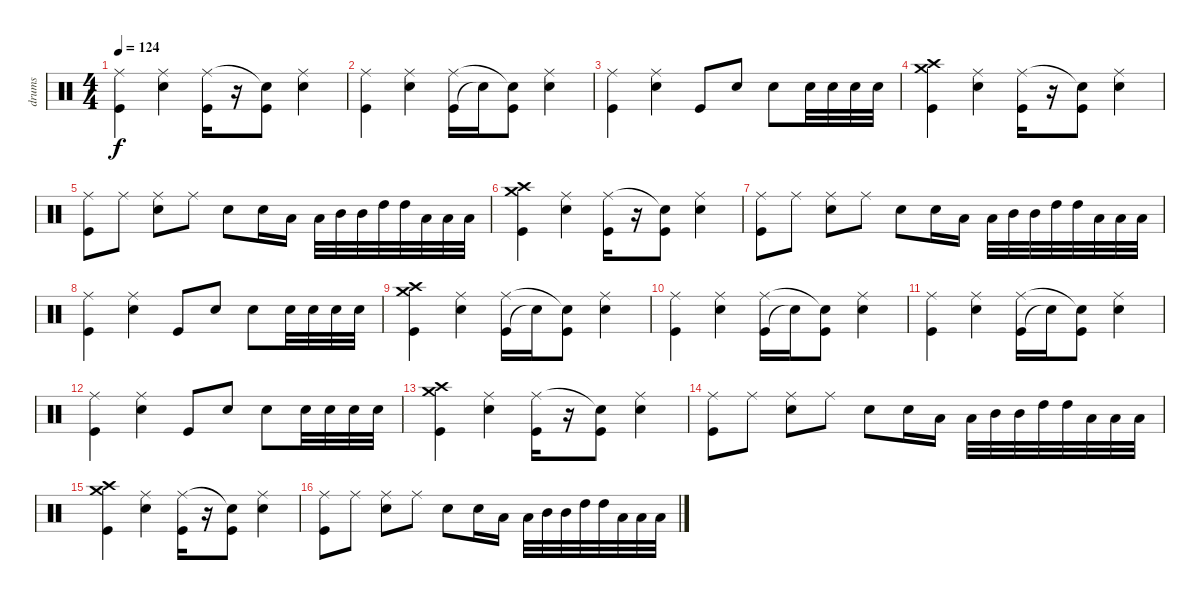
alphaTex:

\track ("drums" "drums") {instrument percussion}
\staff {score}
\articulation defaults
\ts (4 4)
\tempo 124
\clef neutral
\ks c
("Kick (hit)" "Ride (middle)").4{dy f} ("Snare (hit) 2" "Ride (middle)").4 ("Kick (hit)" "Ride (middle)").16 r.16 ("Kick (hit)" "Snare (hit)"{t}).8 ("Snare (hit) 2" "Ride (middle)").4 |
("Kick (hit)" "Ride (middle)").4 ("Snare (hit) 2" "Ride (middle)").4 ("Kick (hit)" "Ride (middle)").16 "Snare (hit)"{t}.16 ("Kick (hit)" "Snare (hit)"{t}).8 ("Snare (hit) 2" "Ride (middle)").4 |
("Kick (hit)" "Ride (middle)").4 ("Snare (hit) 2" "Ride (middle)").4 "Kick (hit)".8 "Snare (hit) 2".8 "Snare (hit) 2".8 "Snare (hit) 2".32 "Snare (hit) 2".32 "Snare (hit) 2".32 "Snare (hit) 2".32 |
("Kick (hit)" "Crash medium (hit)" "Crash high (hit)").4 ("Snare (hit) 2" "Ride (middle)").4 ("Kick (hit)" "Ride (middle)").16 r.16 ("Kick (hit)" "Snare (hit)"{t}).8 ("Snare (hit) 2" "Ride (middle)").4 |
("Kick (hit)" "Ride (middle)").8 "Ride (middle)".8 ("Snare (hit) 2" "Ride (middle)").8 "Ride (middle)".8 "Snare (hit) 2".8 "Snare (hit) 2".16 "Low Tom (hit)".16 "Low Tom (hit)".32 "Mid Tom (hit)".32 "Mid Tom (hit)".32 "High Tom (hit)".32 "High Tom (hit)".32 "Low Floor Tom (hit)".32 "Low Floor Tom (hit)".32 "Low Floor Tom (hit)".32 |
("Kick (hit)" "Crash medium (hit)" "Crash high (hit)").4 ("Snare (hit) 2" "Ride (middle)").4 ("Kick (hit)" "Ride (middle)").16 r.16 ("Kick (hit)" "Snare (hit)"{t}).8 ("Snare (hit) 2" "Ride (middle)").4 |
("Kick (hit)" "Ride (middle)").8 "Ride (middle)".8 ("Snare (hit) 2" "Ride (middle)").8 "Ride (middle)".8 "Snare (hit) 2".8 "Snare (hit) 2".16 "Low Tom (hit)".16 "Low Tom (hit)".32 "Mid Tom (hit)".32 "Mid Tom (hit)".32 "High Tom (hit)".32 "High Tom (hit)".32 "Low Floor Tom (hit)".32 "Low Floor Tom (hit)".32 "Low Floor Tom (hit)".32 |
("Kick (hit)" "Ride (middle)").4 ("Snare (hit) 2" "Ride (middle)").4 "Kick (hit)".8 "Snare (hit) 2".8 "Snare (hit) 2".8 "Snare (hit) 2".32 "Snare (hit) 2".32 "Snare (hit) 2".32 "Snare (hit) 2".32 |
("Kick (hit)" "Crash medium (hit)" "Crash high (hit)").4{volume 6} ("Snare (hit) 2" "Ride (middle)").4 ("Kick (hit)" "Ride (middle)").16 "Snare (hit)"{t}.16 ("Kick (hit)" "Snare (hit)"{t}).8 ("Snare (hit) 2" "Ride (middle)").4 |
("Kick (hit)" "Ride (middle)").4 ("Snare (hit) 2" "Ride (middle)").4 ("Kick (hit)" "Ride (middle)").16 "Snare (hit)"{t}.16 ("Kick (hit)" "Snare (hit)"{t}).8 ("Snare (hit) 2" "Ride (middle)").4 |
("Kick (hit)" "Ride (middle)").4 ("Snare (hit) 2" "Ride (middle)").4 ("Kick (hit)" "Ride (middle)").16 "Snare (hit)"{t}.16 ("Kick (hit)" "Snare (hit)"{t}).8 ("Snare (hit) 2" "Ride (middle)").4 |
("Kick (hit)" "Ride (middle)").4 ("Snare (hit) 2" "Ride (middle)").4 "Kick (hit)".8 "Snare (hit) 2".8 "Snare (hit) 2".8 "Snare (hit) 2".32 "Snare (hit) 2".32 "Snare (hit) 2".32 "Snare (hit) 2".32 |
("Kick (hit)" "Crash medium (hit)" "Crash high (hit)").4 ("Snare (hit) 2" "Ride (middle)").4 ("Kick (hit)" "Ride (middle)").16 r.16 ("Kick (hit)" "Snare (hit)"{t}).8 ("Snare (hit) 2" "Ride (middle)").4 |
("Kick (hit)" "Ride (middle)").8 "Ride (middle)".8 ("Snare (hit) 2" "Ride (middle)").8 "Ride (middle)".8 "Snare (hit) 2".8 "Snare (hit) 2".16 "Low Tom (hit)".16 "Low Tom (hit)".32 "Mid Tom (hit)".32 "Mid Tom (hit)".32 "High Tom (hit)".32 "High Tom (hit)".32 "Low Floor Tom (hit)".32 "Low Floor Tom (hit)".32 "Low Floor Tom (hit)".32 |
("Kick (hit)" "Crash medium (hit)" "Crash high (hit)").4 ("Snare (hit) 2" "Ride (middle)").4 ("Kick (hit)" "Ride (middle)").16 r.16 ("Kick (hit)" "Snare (hit)"{t}).8 ("Snare (hit) 2" "Ride (middle)").4 |
("Kick (hit)" "Ride (middle)").8 "Ride (middle)".8 ("Snare (hit) 2" "Ride (middle)").8 "Ride (middle)".8 "Snare (hit) 2".8 "Snare (hit) 2".16 "Low Tom (hit)".16 "Low Tom (hit)".32 "Mid Tom (hit)".32 "Mid Tom (hit)".32 "High Tom (hit)".32 "High Tom (hit)".32 "Low Floor Tom (hit)".32 "Low Floor Tom (hit)".32 "Low Floor Tom (hit)".32
